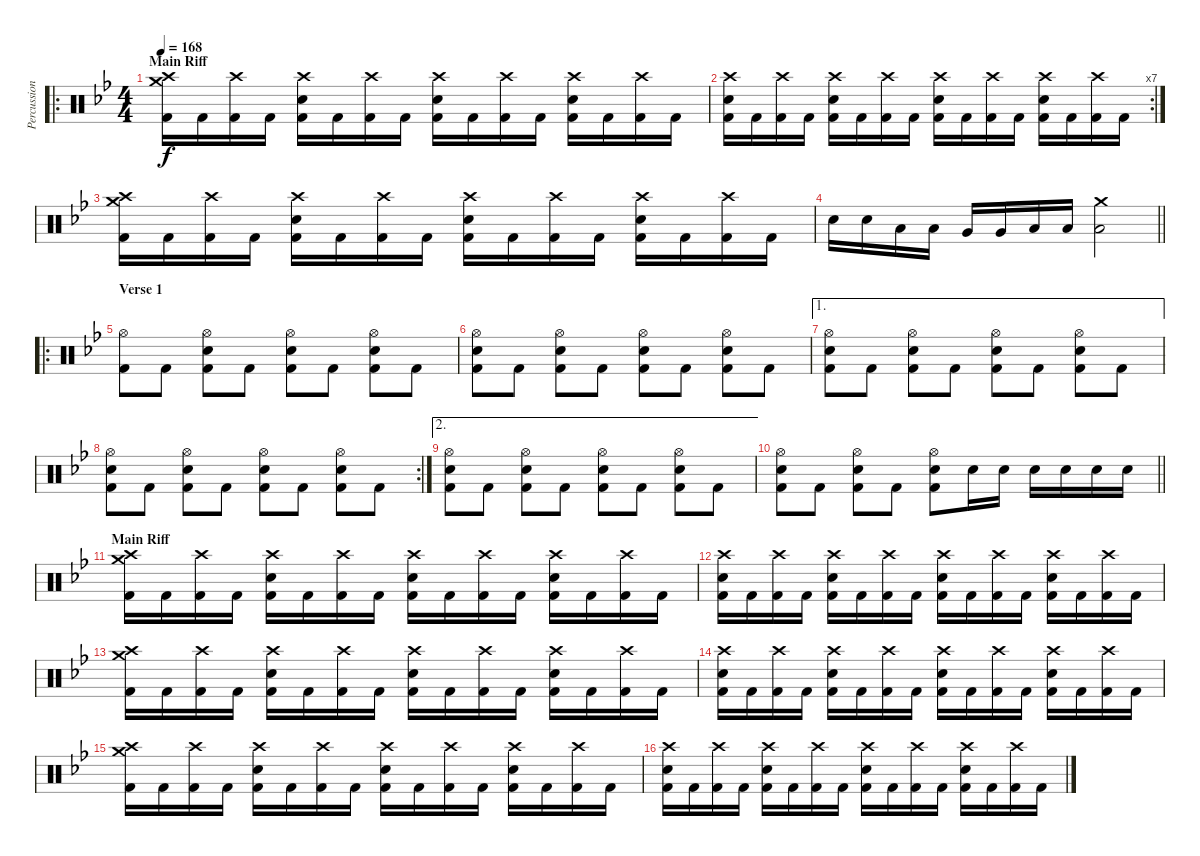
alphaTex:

\track ("Percussion" "Percussion") {instrument percussion}
\staff {score}
\articulation defaults
\ro
\ts (4 4)
\section ("" "Main Riff")
\tempo 168
\clef neutral
\ks bb
("Crash high (hit)" "Crash medium (hit)" "Kick (hit) 2").16{dy f} "Kick (hit) 2".16 ("Crash high (hit)" "Kick (hit) 2").16 "Kick (hit) 2".16 ("Crash high (hit)" "Snare (hit) 2" "Kick (hit) 2").16 "Kick (hit) 2".16 ("Crash high (hit)" "Kick (hit) 2").16 "Kick (hit) 2".16 ("Crash high (hit)" "Snare (hit) 2" "Kick (hit) 2").16 "Kick (hit) 2".16 ("Crash high (hit)" "Kick (hit) 2").16 "Kick (hit) 2".16 ("Crash high (hit)" "Snare (hit) 2" "Kick (hit) 2").16 "Kick (hit) 2".16 ("Crash high (hit)" "Kick (hit) 2").16 "Kick (hit) 2".16 |
\rc 7
("Crash high (hit)" "Snare (hit) 2" "Kick (hit) 2").16 "Kick (hit) 2".16 ("Crash high (hit)" "Kick (hit) 2").16 "Kick (hit) 2".16 ("Crash high (hit)" "Snare (hit) 2" "Kick (hit) 2").16 "Kick (hit) 2".16 ("Crash high (hit)" "Kick (hit) 2").16 "Kick (hit) 2".16 ("Crash high (hit)" "Snare (hit) 2" "Kick (hit) 2").16 "Kick (hit) 2".16 ("Crash high (hit)" "Kick (hit) 2").16 "Kick (hit) 2".16 ("Crash high (hit)" "Snare (hit) 2" "Kick (hit) 2").16 "Kick (hit) 2".16 ("Crash high (hit)" "Kick (hit) 2").16 "Kick (hit) 2".16 |
("Crash high (hit)" "Crash medium (hit)" "Kick (hit) 2").16 "Kick (hit) 2".16 ("Crash high (hit)" "Kick (hit) 2").16 "Kick (hit) 2".16 ("Crash high (hit)" "Snare (hit) 2" "Kick (hit) 2").16 "Kick (hit) 2".16 ("Crash high (hit)" "Kick (hit) 2").16 "Kick (hit) 2".16 ("Crash high (hit)" "Snare (hit) 2" "Kick (hit) 2").16 "Kick (hit) 2".16 ("Crash high (hit)" "Kick (hit) 2").16 "Kick (hit) 2".16 ("Crash high (hit)" "Snare (hit) 2" "Kick (hit) 2").16 "Kick (hit) 2".16 ("Crash high (hit)" "Kick (hit) 2").16 "Kick (hit) 2".16 |
\barLineRight lightlight "Snare (hit) 2".16 "Snare (hit) 2".16 "Low Tom (hit)".16 "Low Tom (hit)".16 "Very Low Tom (hit)".16 "Very Low Tom (hit)".16 "Low Floor Tom (hit)".16 "Low Floor Tom (hit)".16
("Crash medium (hit)" "Low Tom (hit)").2 |
\ro
\section ("" "Verse 1")
("Hi-Hat (open)" "Kick (hit) 2").8 "Kick (hit) 2".8 ("Hi-Hat (open)" "Snare (hit) 2" "Kick (hit) 2").8 "Kick (hit) 2".8 ("Hi-Hat (open)" "Snare (hit) 2" "Kick (hit) 2").8 "Kick (hit) 2".8 ("Hi-Hat (open)" "Snare (hit) 2" "Kick (hit) 2").8 "Kick (hit) 2".8 |
("Hi-Hat (open)" "Snare (hit) 2" "Kick (hit) 2").8 "Kick (hit) 2".8 ("Hi-Hat (open)" "Snare (hit) 2" "Kick (hit) 2").8 "Kick (hit) 2".8 ("Hi-Hat (open)" "Snare (hit) 2" "Kick (hit) 2").8 "Kick (hit) 2".8 ("Hi-Hat (open)" "Snare (hit) 2" "Kick (hit) 2").8 "Kick (hit) 2".8 |
\ae 1
("Hi-Hat (open)" "Snare (hit) 2" "Kick (hit) 2").8 "Kick (hit) 2".8 ("Hi-Hat (open)" "Snare (hit) 2" "Kick (hit) 2").8 "Kick (hit) 2".8 ("Hi-Hat (open)" "Snare (hit) 2" "Kick (hit) 2").8 "Kick (hit) 2".8 ("Hi-Hat (open)" "Snare (hit) 2" "Kick (hit) 2").8 "Kick (hit) 2".8 |
\rc 2
("Hi-Hat (open)" "Snare (hit) 2" "Kick (hit) 2").8 "Kick (hit) 2".8 ("Hi-Hat (open)" "Snare (hit) 2" "Kick (hit) 2").8 "Kick (hit) 2".8 ("Hi-Hat (open)" "Snare (hit) 2" "Kick (hit) 2").8 "Kick (hit) 2".8 ("Hi-Hat (open)" "Snare (hit) 2" "Kick (hit) 2").8 "Kick (hit) 2".8 |
\ae 2
("Hi-Hat (open)" "Snare (hit) 2" "Kick (hit) 2").8 "Kick (hit) 2".8 ("Hi-Hat (open)" "Snare (hit) 2" "Kick (hit) 2").8 "Kick (hit) 2".8 ("Hi-Hat (open)" "Snare (hit) 2" "Kick (hit) 2").8 "Kick (hit) 2".8 ("Hi-Hat (open)" "Snare (hit) 2" "Kick (hit) 2").8 "Kick (hit) 2".8 |
\barLineRight lightlight
("Hi-Hat (open)" "Snare (hit) 2" "Kick (hit) 2").8 "Kick (hit) 2".8 ("Hi-Hat (open)" "Snare (hit) 2" "Kick (hit) 2").8 "Kick (hit) 2".8 ("Hi-Hat (open)" "Snare (hit) 2" "Kick (hit) 2").8 "Snare (hit) 2".16 "Snare (hit) 2".16 "Snare (hit) 2".16 "Snare (hit) 2".16 "Snare (hit) 2".16 "Snare (hit) 2".16 |
\section ("" "Main Riff")
("Crash high (hit)" "Crash medium (hit)" "Kick (hit) 2").16 "Kick (hit) 2".16 ("Crash high (hit)" "Kick (hit) 2").16 "Kick (hit) 2".16 ("Crash high (hit)" "Snare (hit) 2" "Kick (hit) 2").16 "Kick (hit) 2".16 ("Crash high (hit)" "Kick (hit) 2").16 "Kick (hit) 2".16 ("Crash high (hit)" "Snare (hit) 2" "Kick (hit) 2").16 "Kick (hit) 2".16 ("Crash high (hit)" "Kick (hit) 2").16 "Kick (hit) 2".16 ("Crash high (hit)" "Snare (hit) 2" "Kick (hit) 2").16 "Kick (hit) 2".16 ("Crash high (hit)" "Kick (hit) 2").16 "Kick (hit) 2".16 |
("Crash high (hit)" "Snare (hit) 2" "Kick (hit) 2").16 "Kick (hit) 2".16 ("Crash high (hit)" "Kick (hit) 2").16 "Kick (hit) 2".16 ("Crash high (hit)" "Snare (hit) 2" "Kick (hit) 2").16 "Kick (hit) 2".16 ("Crash high (hit)" "Kick (hit) 2").16 "Kick (hit) 2".16 ("Crash high (hit)" "Snare (hit) 2" "Kick (hit) 2").16 "Kick (hit) 2".16 ("Crash high (hit)" "Kick (hit) 2").16 "Kick (hit) 2".16 ("Crash high (hit)" "Snare (hit) 2" "Kick (hit) 2").16 "Kick (hit) 2".16 ("Crash high (hit)" "Kick (hit) 2").16 "Kick (hit) 2".16 |
("Crash high (hit)" "Crash medium (hit)" "Kick (hit) 2").16 "Kick (hit) 2".16 ("Crash high (hit)" "Kick (hit) 2").16 "Kick (hit) 2".16 ("Crash high (hit)" "Snare (hit) 2" "Kick (hit) 2").16 "Kick (hit) 2".16 ("Crash high (hit)" "Kick (hit) 2").16 "Kick (hit) 2".16 ("Crash high (hit)" "Snare (hit) 2" "Kick (hit) 2").16 "Kick (hit) 2".16 ("Crash high (hit)" "Kick (hit) 2").16 "Kick (hit) 2".16 ("Crash high (hit)" "Snare (hit) 2" "Kick (hit) 2").16 "Kick (hit) 2".16 ("Crash high (hit)" "Kick (hit) 2").16 "Kick (hit) 2".16 |
("Crash high (hit)" "Snare (hit) 2" "Kick (hit) 2").16 "Kick (hit) 2".16 ("Crash high (hit)" "Kick (hit) 2").16 "Kick (hit) 2".16 ("Crash high (hit)" "Snare (hit) 2" "Kick (hit) 2").16 "Kick (hit) 2".16 ("Crash high (hit)" "Kick (hit) 2").16 "Kick (hit) 2".16 ("Crash high (hit)" "Snare (hit) 2" "Kick (hit) 2").16 "Kick (hit) 2".16 ("Crash high (hit)" "Kick (hit) 2").16 "Kick (hit) 2".16 ("Crash high (hit)" "Snare (hit) 2" "Kick (hit) 2").16 "Kick (hit) 2".16 ("Crash high (hit)" "Kick (hit) 2").16 "Kick (hit) 2".16 |
("Crash high (hit)" "Crash medium (hit)" "Kick (hit) 2").16 "Kick (hit) 2".16 ("Crash high (hit)" "Kick (hit) 2").16 "Kick (hit) 2".16 ("Crash high (hit)" "Snare (hit) 2" "Kick (hit) 2").16 "Kick (hit) 2".16 ("Crash high (hit)" "Kick (hit) 2").16 "Kick (hit) 2".16 ("Crash high (hit)" "Snare (hit) 2" "Kick (hit) 2").16 "Kick (hit) 2".16 ("Crash high (hit)" "Kick (hit) 2").16 "Kick (hit) 2".16 ("Crash high (hit)" "Snare (hit) 2" "Kick (hit) 2").16 "Kick (hit) 2".16 ("Crash high (hit)" "Kick (hit) 2").16 "Kick (hit) 2".16 |
("Crash high (hit)" "Snare (hit) 2" "Kick (hit) 2").16 "Kick (hit) 2".16 ("Crash high (hit)" "Kick (hit) 2").16 "Kick (hit) 2".16 ("Crash high (hit)" "Snare (hit) 2" "Kick (hit) 2").16 "Kick (hit) 2".16 ("Crash high (hit)" "Kick (hit) 2").16 "Kick (hit) 2".16 ("Crash high (hit)" "Snare (hit) 2" "Kick (hit) 2").16 "Kick (hit) 2".16 ("Crash high (hit)" "Kick (hit) 2").16 "Kick (hit) 2".16 ("Crash high (hit)" "Snare (hit) 2" "Kick (hit) 2").16 "Kick (hit) 2".16 ("Crash high (hit)" "Kick (hit) 2").16 "Kick (hit) 2".16
